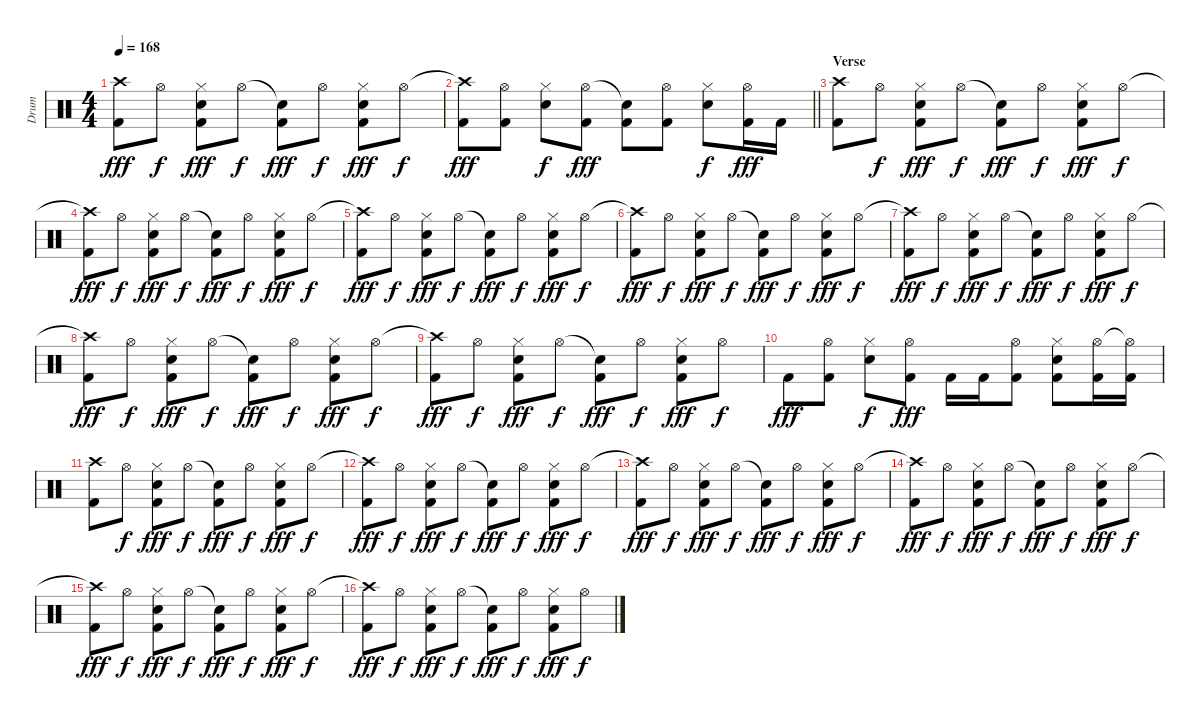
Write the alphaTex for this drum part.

\track ("Drum" "Drum") {instrument percussion}
\staff {score}
\articulation defaults
\ts (4 4)
\tempo 168
\clef neutral
\ks c
("Crash high (hit)"{t} "Kick (hit) 2").8{dy fff} "Hi-Hat (open)".8{dy f} ("Hi-Hat (closed)" "Snare (hit) 2" "Kick (hit) 2").8{dy fff} "Hi-Hat (open)".8{dy f} ("Snare (hit)"{t} "Kick (hit) 2").8{dy fff} "Hi-Hat (open)".8{dy f} ("Hi-Hat (closed)" "Snare (hit) 2" "Kick (hit) 2").8{dy fff} "Hi-Hat (open)".8{dy f} |
\barLineRight lightlight
("Crash high (hit)"{t} "Kick (hit) 2").8{dy fff} ("Hi-Hat (open)" "Kick (hit) 2").8 ("Hi-Hat (closed)" "Snare (hit) 2").8{dy f} ("Hi-Hat (open)" "Kick (hit) 2").8{dy fff} ("Snare (hit)"{t} "Kick (hit) 2").8 ("Hi-Hat (open)" "Kick (hit) 2").8 ("Hi-Hat (closed)" "Snare (hit) 2").8{dy f} ("Hi-Hat (open)" "Kick (hit) 2").16{dy fff} "Kick (hit) 2".16 |
\section ("" "Verse")
("Crash high (hit)" "Kick (hit) 2").8 "Hi-Hat (open)".8{dy f} ("Hi-Hat (closed)" "Snare (hit) 2" "Kick (hit) 2").8{dy fff} "Hi-Hat (open)".8{dy f} ("Snare (hit)"{t} "Kick (hit) 2").8{dy fff} "Hi-Hat (open)".8{dy f} ("Hi-Hat (closed)" "Snare (hit) 2" "Kick (hit) 2").8{dy fff} "Hi-Hat (open)".8{dy f} |
("Crash high (hit)"{t} "Kick (hit) 2").8{dy fff} "Hi-Hat (open)".8{dy f} ("Hi-Hat (closed)" "Snare (hit) 2" "Kick (hit) 2").8{dy fff} "Hi-Hat (open)".8{dy f} ("Snare (hit)"{t} "Kick (hit) 2").8{dy fff} "Hi-Hat (open)".8{dy f} ("Hi-Hat (closed)" "Snare (hit) 2" "Kick (hit) 2").8{dy fff} "Hi-Hat (open)".8{dy f} |
("Crash high (hit)"{t} "Kick (hit) 2").8{dy fff} "Hi-Hat (open)".8{dy f} ("Hi-Hat (closed)" "Snare (hit) 2" "Kick (hit) 2").8{dy fff} "Hi-Hat (open)".8{dy f} ("Snare (hit)"{t} "Kick (hit) 2").8{dy fff} "Hi-Hat (open)".8{dy f} ("Hi-Hat (closed)" "Snare (hit) 2" "Kick (hit) 2").8{dy fff} "Hi-Hat (open)".8{dy f} |
("Crash high (hit)"{t} "Kick (hit) 2").8{dy fff} "Hi-Hat (open)".8{dy f} ("Hi-Hat (closed)" "Snare (hit) 2" "Kick (hit) 2").8{dy fff} "Hi-Hat (open)".8{dy f} ("Snare (hit)"{t} "Kick (hit) 2").8{dy fff} "Hi-Hat (open)".8{dy f} ("Hi-Hat (closed)" "Snare (hit) 2" "Kick (hit) 2").8{dy fff} "Hi-Hat (open)".8{dy f} |
("Crash high (hit)"{t} "Kick (hit) 2").8{dy fff} "Hi-Hat (open)".8{dy f} ("Hi-Hat (closed)" "Snare (hit) 2" "Kick (hit) 2").8{dy fff} "Hi-Hat (open)".8{dy f} ("Snare (hit)"{t} "Kick (hit) 2").8{dy fff} "Hi-Hat (open)".8{dy f} ("Hi-Hat (closed)" "Snare (hit) 2" "Kick (hit) 2").8{dy fff} "Hi-Hat (open)".8{dy f} |
("Crash high (hit)"{t} "Kick (hit) 2").8{dy fff} "Hi-Hat (open)".8{dy f} ("Hi-Hat (closed)" "Snare (hit) 2" "Kick (hit) 2").8{dy fff} "Hi-Hat (open)".8{dy f} ("Snare (hit)"{t} "Kick (hit) 2").8{dy fff} "Hi-Hat (open)".8{dy f} ("Hi-Hat (closed)" "Snare (hit) 2" "Kick (hit) 2").8{dy fff} "Hi-Hat (open)".8{dy f} |
("Crash high (hit)"{t} "Kick (hit) 2").8{dy fff} "Hi-Hat (open)".8{dy f} ("Hi-Hat (closed)" "Snare (hit) 2" "Kick (hit) 2").8{dy fff} "Hi-Hat (open)".8{dy f} ("Snare (hit)"{t} "Kick (hit) 2").8{dy fff} "Hi-Hat (open)".8{dy f} ("Hi-Hat (closed)" "Snare (hit) 2" "Kick (hit) 2").8{dy fff} "Hi-Hat (open)".8{dy f} |
"Kick (hit) 2".8{dy fff} ("Hi-Hat (open)" "Kick (hit) 2").8 ("Hi-Hat (closed)" "Snare (hit) 2").8{dy f} ("Hi-Hat (open)" "Kick (hit) 2").8{dy fff} "Kick (hit) 2".16 "Kick (hit) 2".16 ("Hi-Hat (open)" "Kick (hit) 2").8 ("Hi-Hat (closed)" "Snare (hit) 2" "Kick (hit) 2").8 ("Hi-Hat (open)" "Kick (hit) 2").16 ("Hi-Hat (open)"{t} "Kick (hit) 2").16 |
("Crash high (hit)" "Kick (hit) 2").8 "Hi-Hat (open)".8{dy f} ("Hi-Hat (closed)" "Snare (hit) 2" "Kick (hit) 2").8{dy fff} "Hi-Hat (open)".8{dy f} ("Snare (hit)"{t} "Kick (hit) 2").8{dy fff} "Hi-Hat (open)".8{dy f} ("Hi-Hat (closed)" "Snare (hit) 2" "Kick (hit) 2").8{dy fff} "Hi-Hat (open)".8{dy f} |
("Crash high (hit)"{t} "Kick (hit) 2").8{dy fff} "Hi-Hat (open)".8{dy f} ("Hi-Hat (closed)" "Snare (hit) 2" "Kick (hit) 2").8{dy fff} "Hi-Hat (open)".8{dy f} ("Snare (hit)"{t} "Kick (hit) 2").8{dy fff} "Hi-Hat (open)".8{dy f} ("Hi-Hat (closed)" "Snare (hit) 2" "Kick (hit) 2").8{dy fff} "Hi-Hat (open)".8{dy f} |
("Crash high (hit)"{t} "Kick (hit) 2").8{dy fff} "Hi-Hat (open)".8{dy f} ("Hi-Hat (closed)" "Snare (hit) 2" "Kick (hit) 2").8{dy fff} "Hi-Hat (open)".8{dy f} ("Snare (hit)"{t} "Kick (hit) 2").8{dy fff} "Hi-Hat (open)".8{dy f} ("Hi-Hat (closed)" "Snare (hit) 2" "Kick (hit) 2").8{dy fff} "Hi-Hat (open)".8{dy f} |
("Crash high (hit)"{t} "Kick (hit) 2").8{dy fff} "Hi-Hat (open)".8{dy f} ("Hi-Hat (closed)" "Snare (hit) 2" "Kick (hit) 2").8{dy fff} "Hi-Hat (open)".8{dy f} ("Snare (hit)"{t} "Kick (hit) 2").8{dy fff} "Hi-Hat (open)".8{dy f} ("Hi-Hat (closed)" "Snare (hit) 2" "Kick (hit) 2").8{dy fff} "Hi-Hat (open)".8{dy f} |
("Crash high (hit)"{t} "Kick (hit) 2").8{dy fff} "Hi-Hat (open)".8{dy f} ("Hi-Hat (closed)" "Snare (hit) 2" "Kick (hit) 2").8{dy fff} "Hi-Hat (open)".8{dy f} ("Snare (hit)"{t} "Kick (hit) 2").8{dy fff} "Hi-Hat (open)".8{dy f} ("Hi-Hat (closed)" "Snare (hit) 2" "Kick (hit) 2").8{dy fff} "Hi-Hat (open)".8{dy f} |
("Crash high (hit)"{t} "Kick (hit) 2").8{dy fff} "Hi-Hat (open)".8{dy f} ("Hi-Hat (closed)" "Snare (hit) 2" "Kick (hit) 2").8{dy fff} "Hi-Hat (open)".8{dy f} ("Snare (hit)"{t} "Kick (hit) 2").8{dy fff} "Hi-Hat (open)".8{dy f} ("Hi-Hat (closed)" "Snare (hit) 2" "Kick (hit) 2").8{dy fff} "Hi-Hat (open)".8{dy f}
